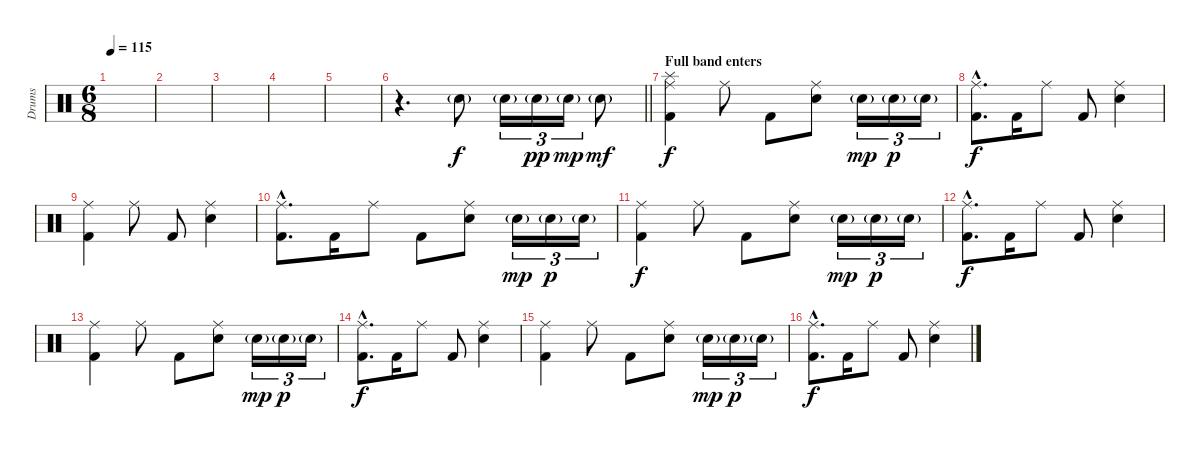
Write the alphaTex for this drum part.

\track ("Drums" "Drums") {instrument percussion}
\staff {score}
\articulation defaults
\ts (6 8)
\tempo 115
\clef neutral
\ks c
|
|
|
|
|
\barLineRight lightlight
r.4{d} "Electric Snare (hit)"{g}.8{volume 12} "Electric Snare (hit)"{g}.16{tu (3 2)} "Electric Snare (hit)"{g}.16{tu (3 2) dy pp} "Electric Snare (hit)"{g}.16{tu (3 2) dy mp} "Electric Snare (hit)"{g}.8{dy mf} |
\section ("" "Full band enters")
("Splash (hit)" "Ride (middle)" "Kick (hit) 2").4{dy f} "Ride (middle)".8 "Kick (hit) 2".8 ("Ride (middle)" "Electric Snare (hit)").8 "Electric Snare (hit)"{g}.16{tu (3 2) dy mp} "Electric Snare (hit)"{g}.16{tu (3 2) dy p} "Electric Snare (hit)"{g}.16{tu (3 2)} |
("Ride (middle)"{hac} "Kick (hit) 2"{hac}).8{d dy f} "Kick (hit) 2".16 "Ride (middle)".8 "Kick (hit) 2".8 ("Ride (middle)" "Electric Snare (hit)").4 |
("Ride (middle)" "Kick (hit) 2").4 "Ride (middle)".8 "Kick (hit) 2".8 ("Ride (middle)" "Electric Snare (hit)").4 |
("Ride (middle)"{hac} "Kick (hit) 2"{hac}).8{d} "Kick (hit) 2".16 "Ride (middle)".8 "Kick (hit) 2".8 ("Ride (middle)" "Electric Snare (hit)").8 "Electric Snare (hit)"{g}.16{tu (3 2) dy mp} "Electric Snare (hit)"{g}.16{tu (3 2) dy p} "Electric Snare (hit)"{g}.16{tu (3 2)} |
("Ride (middle)" "Kick (hit) 2").4{dy f} "Ride (middle)".8 "Kick (hit) 2".8 ("Ride (middle)" "Electric Snare (hit)").8 "Electric Snare (hit)"{g}.16{tu (3 2) dy mp} "Electric Snare (hit)"{g}.16{tu (3 2) dy p} "Electric Snare (hit)"{g}.16{tu (3 2)} |
("Ride (middle)"{hac} "Kick (hit) 2"{hac}).8{d dy f} "Kick (hit) 2".16 "Ride (middle)".8 "Kick (hit) 2".8 ("Ride (middle)" "Electric Snare (hit)").4 |
("Ride (middle)" "Kick (hit) 2").4 "Ride (middle)".8 "Kick (hit) 2".8 ("Ride (middle)" "Electric Snare (hit)").8 "Electric Snare (hit)"{g}.16{tu (3 2) dy mp} "Electric Snare (hit)"{g}.16{tu (3 2) dy p} "Electric Snare (hit)"{g}.16{tu (3 2)} |
("Ride (middle)"{hac} "Kick (hit) 2"{hac}).8{d dy f} "Kick (hit) 2".16 "Ride (middle)".8 "Kick (hit) 2".8 ("Ride (middle)" "Electric Snare (hit)").4 |
("Ride (middle)" "Kick (hit) 2").4 "Ride (middle)".8 "Kick (hit) 2".8 ("Ride (middle)" "Electric Snare (hit)").8 "Electric Snare (hit)"{g}.16{tu (3 2) dy mp} "Electric Snare (hit)"{g}.16{tu (3 2) dy p} "Electric Snare (hit)"{g}.16{tu (3 2)} |
("Ride (middle)"{hac} "Kick (hit) 2"{hac}).8{d dy f} "Kick (hit) 2".16 "Ride (middle)".8 "Kick (hit) 2".8 ("Ride (middle)" "Electric Snare (hit)").4
